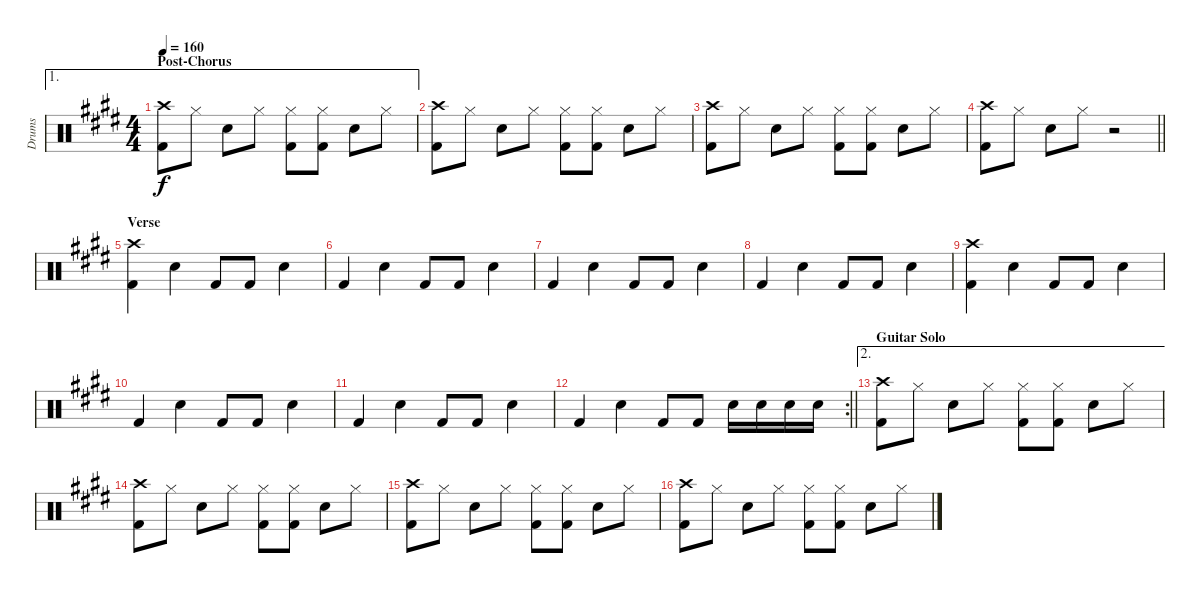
\track ("Drums" "Drums") {instrument percussion}
\staff {score}
\articulation defaults
\ae 1
\ts (4 4)
\section ("" "Post-Chorus")
\tempo 160
\clef neutral
\ks e
("Kick (hit) 2" "Crash high (hit)").8{dy f} "Hi-Hat (closed)".8 "Snare (hit) 2".8 "Hi-Hat (closed)".8 ("Kick (hit) 2" "Hi-Hat (closed)").8 ("Kick (hit) 2" "Hi-Hat (closed)").8 "Snare (hit) 2".8 "Hi-Hat (closed)".8 |
("Kick (hit) 2" "Crash high (hit)").8 "Hi-Hat (closed)".8 "Snare (hit) 2".8 "Hi-Hat (closed)".8 ("Kick (hit) 2" "Hi-Hat (closed)").8 ("Kick (hit) 2" "Hi-Hat (closed)").8 "Snare (hit) 2".8 "Hi-Hat (closed)".8 |
("Kick (hit) 2" "Crash high (hit)").8 "Hi-Hat (closed)".8 "Snare (hit) 2".8 "Hi-Hat (closed)".8 ("Kick (hit) 2" "Hi-Hat (closed)").8 ("Kick (hit) 2" "Hi-Hat (closed)").8 "Snare (hit) 2".8 "Hi-Hat (closed)".8 |
\barLineRight lightlight
("Kick (hit) 2" "Crash high (hit)").8 "Hi-Hat (closed)".8 "Snare (hit) 2".8 "Hi-Hat (closed)".8 r.2 |
\section ("" "Verse")
("Kick (hit) 2" "Crash high (hit)").4 "Snare (hit) 2".4 "Kick (hit) 2".8 "Kick (hit) 2".8 "Snare (hit) 2".4 |
"Kick (hit) 2".4 "Snare (hit) 2".4 "Kick (hit) 2".8 "Kick (hit) 2".8 "Snare (hit) 2".4 |
"Kick (hit) 2".4 "Snare (hit) 2".4 "Kick (hit) 2".8 "Kick (hit) 2".8 "Snare (hit) 2".4 |
"Kick (hit) 2".4 "Snare (hit) 2".4 "Kick (hit) 2".8 "Kick (hit) 2".8 "Snare (hit) 2".4 |
("Kick (hit) 2" "Crash high (hit)").4 "Snare (hit) 2".4 "Kick (hit) 2".8 "Kick (hit) 2".8 "Snare (hit) 2".4 |
"Kick (hit) 2".4 "Snare (hit) 2".4 "Kick (hit) 2".8 "Kick (hit) 2".8 "Snare (hit) 2".4 |
"Kick (hit) 2".4 "Snare (hit) 2".4 "Kick (hit) 2".8 "Kick (hit) 2".8 "Snare (hit) 2".4 |
\rc 2
\barLineRight lightlight "Kick (hit) 2".4 "Snare (hit) 2".4 "Kick (hit) 2".8 "Kick (hit) 2".8 "Snare (hit) 2".16 "Snare (hit) 2".16 "Snare (hit) 2".16 "Snare (hit) 2".16
|
\ae 2
\section ("" "Guitar Solo")
("Kick (hit) 2" "Crash high (hit)").8 "Hi-Hat (closed)".8 "Snare (hit) 2".8 "Hi-Hat (closed)".8 ("Kick (hit) 2" "Hi-Hat (closed)").8 ("Kick (hit) 2" "Hi-Hat (closed)").8 "Snare (hit) 2".8 "Hi-Hat (closed)".8 |
("Kick (hit) 2" "Crash high (hit)").8 "Hi-Hat (closed)".8 "Snare (hit) 2".8 "Hi-Hat (closed)".8 ("Kick (hit) 2" "Hi-Hat (closed)").8 ("Kick (hit) 2" "Hi-Hat (closed)").8 "Snare (hit) 2".8 "Hi-Hat (closed)".8 |
("Kick (hit) 2" "Crash high (hit)").8 "Hi-Hat (closed)".8 "Snare (hit) 2".8 "Hi-Hat (closed)".8 ("Kick (hit) 2" "Hi-Hat (closed)").8 ("Kick (hit) 2" "Hi-Hat (closed)").8 "Snare (hit) 2".8 "Hi-Hat (closed)".8 |
("Kick (hit) 2" "Crash high (hit)").8 "Hi-Hat (closed)".8 "Snare (hit) 2".8 "Hi-Hat (closed)".8 ("Kick (hit) 2" "Hi-Hat (closed)").8 ("Kick (hit) 2" "Hi-Hat (closed)").8 "Snare (hit) 2".8 "Hi-Hat (closed)".8
